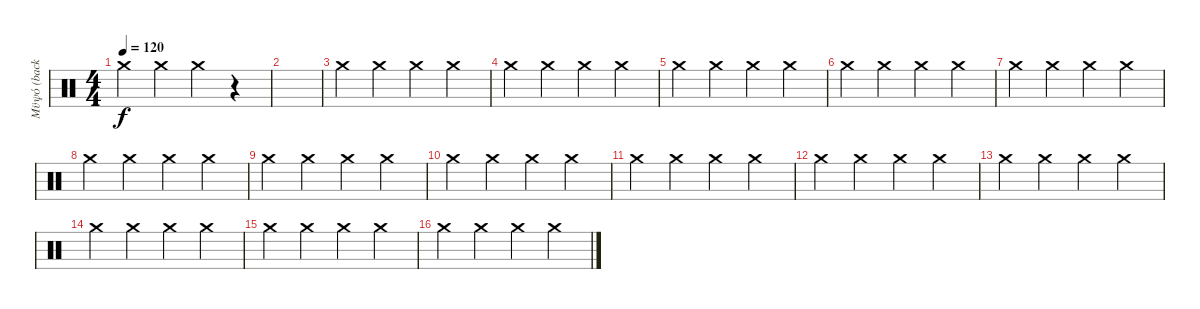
\track ("Μϋψό (back percussion)" "Μϋψό (back") {instrument percussion}
\staff {score}
\articulation defaults
\ts (4 4)
\tempo 120
\clef neutral
\ks c "Crash medium (hit)".4{dy f} "Crash medium (hit)".4 "Crash medium (hit)".4
r.4 |
|
"Crash medium (hit)".4 "Crash medium (hit)".4 "Crash medium (hit)".4 "Crash medium (hit)".4 |
"Crash medium (hit)".4 "Crash medium (hit)".4 "Crash medium (hit)".4 "Crash medium (hit)".4 |
"Crash medium (hit)".4 "Crash medium (hit)".4 "Crash medium (hit)".4 "Crash medium (hit)".4 |
"Crash medium (hit)".4 "Crash medium (hit)".4 "Crash medium (hit)".4 "Crash medium (hit)".4 |
"Crash medium (hit)".4 "Crash medium (hit)".4 "Crash medium (hit)".4 "Crash medium (hit)".4 |
"Crash medium (hit)".4 "Crash medium (hit)".4 "Crash medium (hit)".4 "Crash medium (hit)".4 |
"Crash medium (hit)".4 "Crash medium (hit)".4 "Crash medium (hit)".4 "Crash medium (hit)".4 |
"Crash medium (hit)".4 "Crash medium (hit)".4 "Crash medium (hit)".4 "Crash medium (hit)".4 |
"Crash medium (hit)".4 "Crash medium (hit)".4 "Crash medium (hit)".4 "Crash medium (hit)".4 |
"Crash medium (hit)".4 "Crash medium (hit)".4 "Crash medium (hit)".4 "Crash medium (hit)".4 |
"Crash medium (hit)".4 "Crash medium (hit)".4 "Crash medium (hit)".4 "Crash medium (hit)".4 |
"Crash medium (hit)".4 "Crash medium (hit)".4 "Crash medium (hit)".4 "Crash medium (hit)".4 |
"Crash medium (hit)".4 "Crash medium (hit)".4 "Crash medium (hit)".4 "Crash medium (hit)".4 |
"Crash medium (hit)".4 "Crash medium (hit)".4 "Crash medium (hit)".4 "Crash medium (hit)".4
